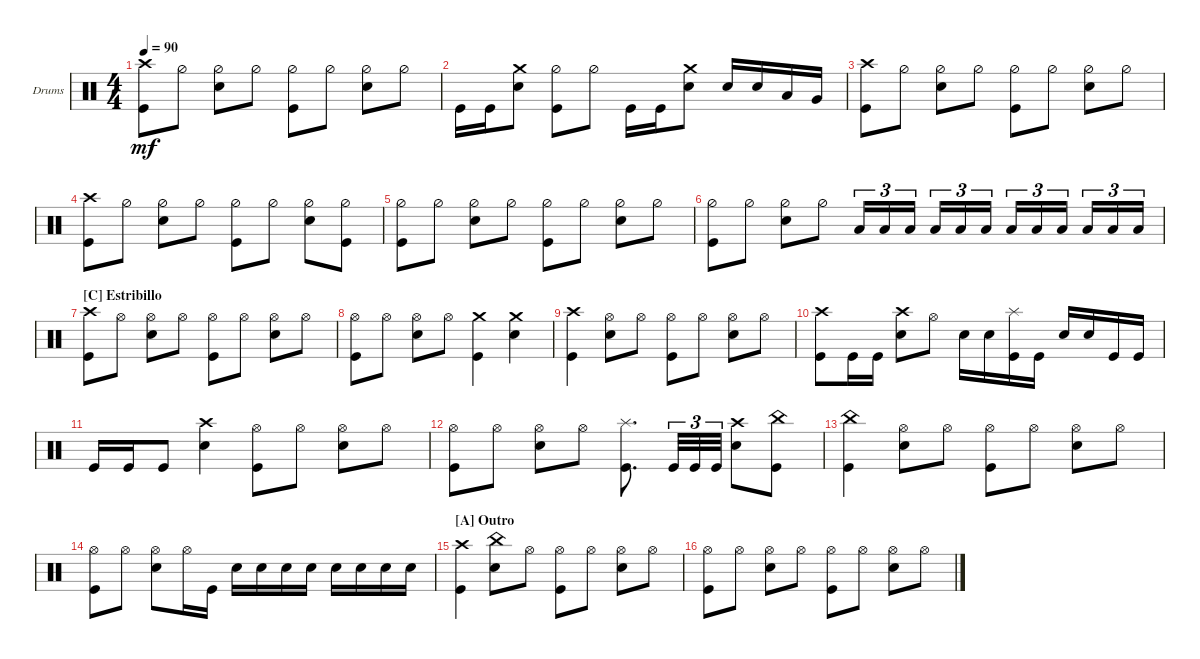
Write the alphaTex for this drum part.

\bracketExtendMode groupsimilarinstruments
\firstSystemTrackNameOrientation horizontal
\otherSystemsTrackNameOrientation horizontal
\track ("Arin Ilejay" "Drums") {instrument percussion}
\staff {score}
\articulation defaults
\ts (4 4)
\tempo 90
\clef neutral
\ks c
("Crash high (hit)" "Kick (hit)").8{dy mf} "Hi-Hat (half)".8 ("Hi-Hat (half)" "Snare (hit) 2").8 "Hi-Hat (half)".8 ("Hi-Hat (half)" "Kick (hit)").8 "Hi-Hat (half)".8 ("Hi-Hat (half)" "Snare (hit) 2").8 "Hi-Hat (half)".8 |
"Kick (hit)".16 "Kick (hit)".16 ("Snare (hit) 2" "Crash medium (hit)").8 ("Kick (hit)" "Hi-Hat (half)").8 "Hi-Hat (half)".8 "Kick (hit)".16 "Kick (hit)".16 ("Snare (hit) 2" "Crash medium (hit)").8 "Snare (hit) 2".16 "Snare (hit) 2".16 "Low Tom (hit)".16 "Very Low Tom (hit)".16 |
("Crash high (hit)" "Kick (hit)").8 "Hi-Hat (half)".8 ("Hi-Hat (half)" "Snare (hit) 2").8 "Hi-Hat (half)".8 ("Hi-Hat (half)" "Kick (hit)").8 "Hi-Hat (half)".8 ("Hi-Hat (half)" "Snare (hit) 2").8 "Hi-Hat (half)".8 |
("Kick (hit)" "Crash high (hit)").8 "Hi-Hat (half)".8 ("Hi-Hat (half)" "Snare (hit) 2").8 "Hi-Hat (half)".8 ("Hi-Hat (half)" "Kick (hit)").8 "Hi-Hat (half)".8 ("Hi-Hat (half)" "Snare (hit) 2").8 ("Hi-Hat (half)" "Kick (hit)").8 |
("Kick (hit)" "Hi-Hat (half)").8 "Hi-Hat (half)".8 ("Hi-Hat (half)" "Snare (hit) 2").8 "Hi-Hat (half)".8 ("Hi-Hat (half)" "Kick (hit)").8 "Hi-Hat (half)".8 ("Hi-Hat (half)" "Snare (hit) 2").8 "Hi-Hat (half)".8 |
("Hi-Hat (half)" "Kick (hit)").8 "Hi-Hat (half)".8 ("Snare (hit) 2" "Hi-Hat (half)").8 "Hi-Hat (half)".8 "Low Tom (hit)".16{tu (3 2)} "Low Tom (hit)".16{tu (3 2)} "Low Tom (hit)".16{tu (3 2)} "Low Tom (hit)".16{tu (3 2)} "Low Tom (hit)".16{tu (3 2)} "Low Tom (hit)".16{tu (3 2)} "Low Tom (hit)".16{tu (3 2)} "Low Tom (hit)".16{tu (3 2)} "Low Tom (hit)".16{tu (3 2)} "Low Tom (hit)".16{tu (3 2)} "Low Tom (hit)".16{tu (3 2)} "Low Tom (hit)".16{tu (3 2)} |
\section ("C" "Estribillo")
("Kick (hit)" "Crash high (hit)").8 "Hi-Hat (open)".8 ("Hi-Hat (open)" "Snare (hit) 2").8 "Hi-Hat (open)".8 ("Hi-Hat (open)" "Kick (hit)").8 "Hi-Hat (open)".8 ("Hi-Hat (open)" "Snare (hit) 2").8 "Hi-Hat (open)".8 |
("Hi-Hat (open)" "Kick (hit)").8 "Hi-Hat (open)".8 ("Hi-Hat (open)" "Snare (hit) 2").8 "Hi-Hat (open)".8 ("Kick (hit)" "Crash medium (hit)").4 ("Snare (hit) 2" "Crash medium (hit)").4 |
("Kick (hit)" "Crash high (hit)").4 ("Hi-Hat (open)" "Snare (hit) 2").8 "Hi-Hat (open)".8 ("Hi-Hat (open)" "Kick (hit)").8 "Hi-Hat (open)".8 ("Hi-Hat (open)" "Snare (hit) 2").8 "Hi-Hat (open)".8 |
("Kick (hit)" "Crash high (hit)").8 "Kick (hit)".16 "Kick (hit)".16 ("Snare (hit) 2" "Crash high (hit)").8 "Hi-Hat (open)".8 "Snare (hit) 2".16 "Snare (hit) 2".16 ("Kick (hit)" "Splash (hit)").16 "Kick (hit)".16 "Snare (hit) 2".16 "Snare (hit) 2".16 "Kick (hit)".16 "Kick (hit)".16 |
"Kick (hit)".16 "Kick (hit)".16 "Kick (hit)".8 ("Snare (hit) 2" "Crash high (hit)").4 ("Hi-Hat (open)" "Kick (hit)").8 "Hi-Hat (open)".8 ("Hi-Hat (open)" "Snare (hit) 2").8 "Hi-Hat (open)".8 |
("Hi-Hat (open)" "Kick (hit)").8 "Hi-Hat (open)".8 ("Hi-Hat (open)" "Snare (hit) 2").8 "Hi-Hat (open)".8 ("Kick (hit)" "Splash (hit)").8{d} "Kick (hit)".32{tu (3 2)} "Kick (hit)".32{tu (3 2)} "Kick (hit)".32{tu (3 2)} ("Snare (hit) 2" "Crash high (hit)").8 ("China (hit)" "Kick (hit)").8 |
("Kick (hit)" "China (hit)").4 ("Hi-Hat (open)" "Snare (hit) 2").8 "Hi-Hat (open)".8 ("Hi-Hat (open)" "Kick (hit)").8 "Hi-Hat (open)".8 ("Hi-Hat (open)" "Snare (hit) 2").8 "Hi-Hat (open)".8 |
("Hi-Hat (open)" "Kick (hit)").8 "Hi-Hat (open)".8 ("Hi-Hat (open)" "Snare (hit) 2").8 "Hi-Hat (open)".16 "Kick (hit)".16 "Snare (hit) 2".16 "Snare (hit) 2".16 "Snare (hit) 2".16 "Snare (hit) 2".16 "Snare (hit) 2".16 "Snare (hit) 2".16 "Snare (hit) 2".16 "Snare (hit) 2".16 |
\section ("A" "Outro")
("Crash high (hit)" "Kick (hit)").4 ("Snare (hit) 2" "China (hit)").8 "Hi-Hat (open)".8 ("Hi-Hat (open)" "Kick (hit)").8 "Hi-Hat (open)".8 ("Snare (hit) 2" "Hi-Hat (open)").8 "Hi-Hat (open)".8 |
("Hi-Hat (open)" "Kick (hit)").8 "Hi-Hat (open)".8 ("Snare (hit) 2" "Hi-Hat (open)").8 "Hi-Hat (open)".8 ("Hi-Hat (open)" "Kick (hit)").8 "Hi-Hat (open)".8 ("Snare (hit) 2" "Hi-Hat (open)").8 "Hi-Hat (open)".8
